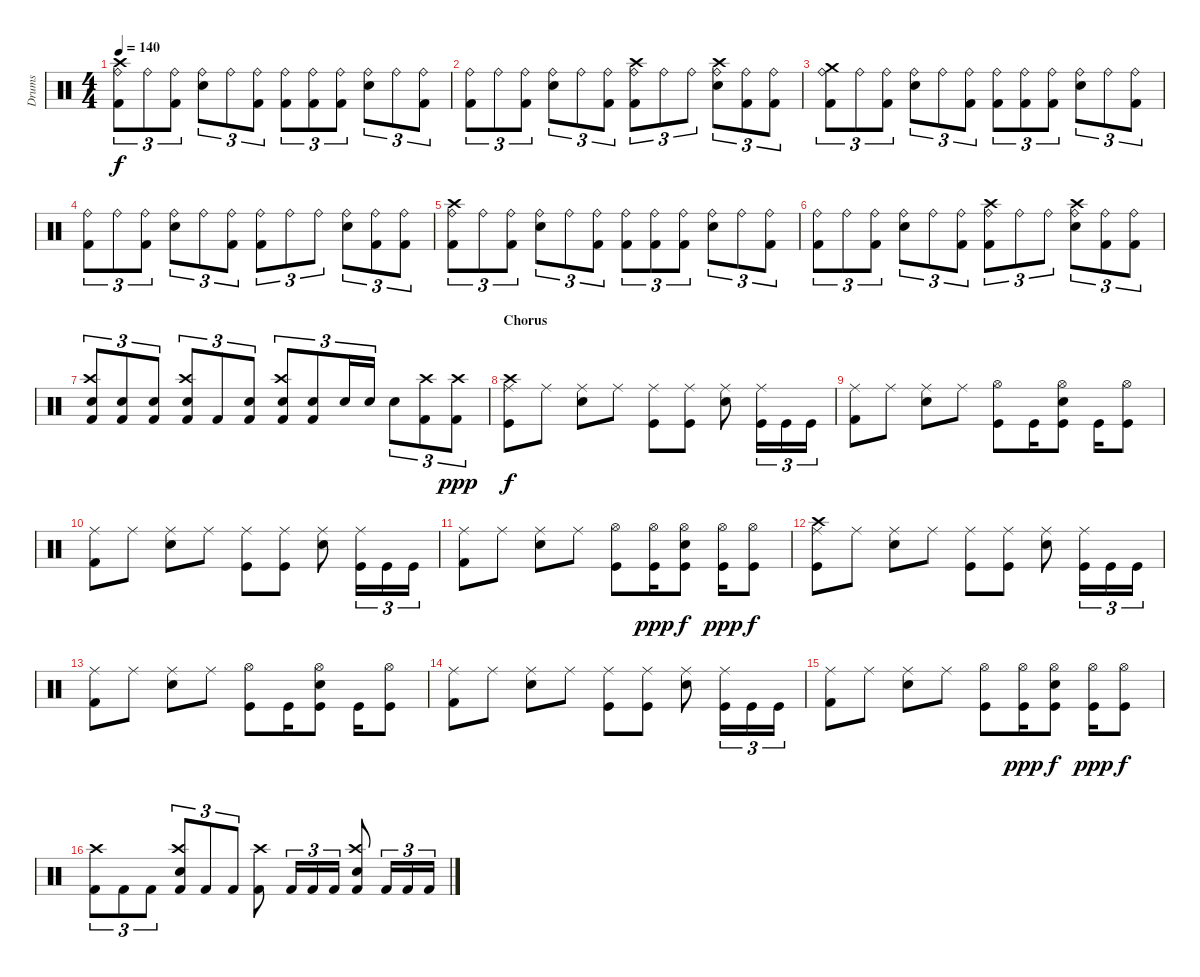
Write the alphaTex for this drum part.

\track ("Drums" "Drums") {instrument percussion}
\staff {score}
\articulation defaults
\ts (4 4)
\tempo 140
\clef neutral
\ks c
("Ride (bell)" "Kick (hit) 2" "Crash high (hit)").8{tu (3 2) dy f} "Ride (bell)".8{tu (3 2)} ("Ride (bell)" "Kick (hit) 2").8{tu (3 2)} ("Ride (bell)" "Electric Snare (hit)").8{tu (3 2)} "Ride (bell)".8{tu (3 2)} ("Ride (bell)" "Kick (hit) 2").8{tu (3 2)} ("Ride (bell)" "Kick (hit) 2").8{tu (3 2)} ("Ride (bell)" "Kick (hit) 2").8{tu (3 2)} ("Ride (bell)" "Kick (hit) 2").8{tu (3 2)} ("Ride (bell)" "Electric Snare (hit)").8{tu (3 2)} "Ride (bell)".8{tu (3 2)} ("Ride (bell)" "Kick (hit) 2").8{tu (3 2)} |
("Ride (bell)" "Kick (hit) 2").8{tu (3 2)} "Ride (bell)".8{tu (3 2)} ("Ride (bell)" "Kick (hit) 2").8{tu (3 2)} ("Ride (bell)" "Electric Snare (hit)").8{tu (3 2)} "Ride (bell)".8{tu (3 2)} ("Ride (bell)" "Kick (hit) 2").8{tu (3 2)} ("Ride (bell)" "Crash high (hit)" "Kick (hit) 2").8{tu (3 2)} "Ride (bell)".8{tu (3 2)} "Ride (bell)".8{tu (3 2)} ("Ride (bell)" "Crash high (hit)" "Electric Snare (hit)").8{tu (3 2)} ("Ride (bell)" "Kick (hit) 2").8{tu (3 2)} ("Ride (bell)" "Kick (hit) 2").8{tu (3 2)} |
("Ride (bell)" "Kick (hit) 2" "Crash medium (hit)").8{tu (3 2)} "Ride (bell)".8{tu (3 2)} ("Ride (bell)" "Kick (hit) 2").8{tu (3 2)} ("Ride (bell)" "Electric Snare (hit)").8{tu (3 2)} "Ride (bell)".8{tu (3 2)} ("Ride (bell)" "Kick (hit) 2").8{tu (3 2)} ("Ride (bell)" "Kick (hit) 2").8{tu (3 2)} ("Ride (bell)" "Kick (hit) 2").8{tu (3 2)} ("Ride (bell)" "Kick (hit) 2").8{tu (3 2)} ("Ride (bell)" "Electric Snare (hit)").8{tu (3 2)} "Ride (bell)".8{tu (3 2)} ("Ride (bell)" "Kick (hit) 2").8{tu (3 2)} |
("Ride (bell)" "Kick (hit) 2").8{tu (3 2)} "Ride (bell)".8{tu (3 2)} ("Ride (bell)" "Kick (hit) 2").8{tu (3 2)} ("Ride (bell)" "Electric Snare (hit)").8{tu (3 2)} "Ride (bell)".8{tu (3 2)} ("Ride (bell)" "Kick (hit) 2").8{tu (3 2)} ("Ride (bell)" "Kick (hit) 2").8{tu (3 2)} "Ride (bell)".8{tu (3 2)} "Ride (bell)".8{tu (3 2)} ("Ride (bell)" "Electric Snare (hit)").8{tu (3 2)} ("Ride (bell)" "Kick (hit) 2").8{tu (3 2)} ("Ride (bell)" "Kick (hit) 2").8{tu (3 2)} |
("Ride (bell)" "Kick (hit) 2" "Crash high (hit)").8{tu (3 2)} "Ride (bell)".8{tu (3 2)} ("Ride (bell)" "Kick (hit) 2").8{tu (3 2)} ("Ride (bell)" "Electric Snare (hit)").8{tu (3 2)} "Ride (bell)".8{tu (3 2)} ("Ride (bell)" "Kick (hit) 2").8{tu (3 2)} ("Ride (bell)" "Kick (hit) 2").8{tu (3 2)} ("Ride (bell)" "Kick (hit) 2").8{tu (3 2)} ("Ride (bell)" "Kick (hit) 2").8{tu (3 2)} ("Ride (bell)" "Electric Snare (hit)").8{tu (3 2)} "Ride (bell)".8{tu (3 2)} ("Ride (bell)" "Kick (hit) 2").8{tu (3 2)} |
("Ride (bell)" "Kick (hit) 2").8{tu (3 2)} "Ride (bell)".8{tu (3 2)} ("Ride (bell)" "Kick (hit) 2").8{tu (3 2)} ("Ride (bell)" "Electric Snare (hit)").8{tu (3 2)} "Ride (bell)".8{tu (3 2)} ("Ride (bell)" "Kick (hit) 2").8{tu (3 2)} ("Ride (bell)" "Crash high (hit)" "Kick (hit) 2").8{tu (3 2)} "Ride (bell)".8{tu (3 2)} "Ride (bell)".8{tu (3 2)} ("Ride (bell)" "Crash high (hit)" "Electric Snare (hit)").8{tu (3 2)} ("Ride (bell)" "Kick (hit) 2").8{tu (3 2)} ("Ride (bell)" "Kick (hit) 2").8{tu (3 2)} |
("Crash high (hit)" "Electric Snare (hit)" "Kick (hit) 2").8{tu (3 2)} ("Electric Snare (hit)" "Kick (hit) 2").8{tu (3 2)} ("Electric Snare (hit)" "Kick (hit) 2").8{tu (3 2)} ("Crash high (hit)" "Electric Snare (hit)" "Kick (hit) 2").8{tu (3 2)} "Kick (hit) 2".8{tu (3 2)} ("Electric Snare (hit)" "Kick (hit) 2").8{tu (3 2)} ("Crash high (hit)" "Electric Snare (hit)" "Kick (hit) 2").8{tu (3 2)} ("Electric Snare (hit)" "Kick (hit) 2").8{tu (3 2)} "Electric Snare (hit)".16{tu (3 2)} "Electric Snare (hit)".16{tu (3 2)} "Electric Snare (hit)".8{tu (3 2)} ("Kick (hit) 2" "Crash high (hit)").8{tu (3 2)} ("Kick (hit) 2" "Crash high (hit)").8{tu (3 2) dy ppp} |
\section ("" "Chorus")
("Ride (middle)" "Kick (hit)" "Crash high (hit)").8{dy f} "Ride (middle)".8 ("Ride (middle)" "Electric Snare (hit)").8 "Ride (middle)".8 ("Ride (middle)" "Kick (hit)").8 ("Ride (middle)" "Kick (hit)").8 ("Ride (middle)" "Electric Snare (hit)").8 ("Ride (middle)" "Kick (hit)").16{tu (3 2)} "Kick (hit)".16{tu (3 2)} "Kick (hit)".16{tu (3 2)} |
("Ride (middle)" "Kick (hit) 2").8 "Ride (middle)".8 ("Ride (middle)" "Electric Snare (hit)").8 "Ride (middle)".8 ("Kick (hit)" "Hi-Hat (open)").8 "Kick (hit)".16 ("Kick (hit)" "Hi-Hat (open)" "Electric Snare (hit)").8 "Kick (hit)".16 ("Kick (hit)" "Hi-Hat (open)").8 |
("Ride (middle)" "Kick (hit) 2").8 "Ride (middle)".8 ("Ride (middle)" "Electric Snare (hit)").8 "Ride (middle)".8 ("Ride (middle)" "Kick (hit)").8 ("Ride (middle)" "Kick (hit)").8 ("Ride (middle)" "Electric Snare (hit)").8 ("Ride (middle)" "Kick (hit)").16{tu (3 2)} "Kick (hit)".16{tu (3 2)} "Kick (hit)".16{tu (3 2)} |
("Ride (middle)" "Kick (hit) 2").8 "Ride (middle)".8 ("Ride (middle)" "Electric Snare (hit)").8 "Ride (middle)".8 ("Kick (hit)" "Hi-Hat (open)").8 ("Kick (hit)" "Hi-Hat (open)").16{dy ppp} ("Kick (hit)" "Hi-Hat (open)" "Electric Snare (hit)").8{dy f} ("Kick (hit)" "Hi-Hat (open)").16{dy ppp} ("Kick (hit)" "Hi-Hat (open)").8{dy f} |
("Ride (middle)" "Kick (hit)" "Crash high (hit)").8 "Ride (middle)".8 ("Ride (middle)" "Electric Snare (hit)").8 "Ride (middle)".8 ("Ride (middle)" "Kick (hit)").8 ("Ride (middle)" "Kick (hit)").8 ("Ride (middle)" "Electric Snare (hit)").8 ("Ride (middle)" "Kick (hit)").16{tu (3 2)} "Kick (hit)".16{tu (3 2)} "Kick (hit)".16{tu (3 2)} |
("Ride (middle)" "Kick (hit) 2").8 "Ride (middle)".8 ("Ride (middle)" "Electric Snare (hit)").8 "Ride (middle)".8 ("Kick (hit)" "Hi-Hat (open)").8 "Kick (hit)".16 ("Kick (hit)" "Hi-Hat (open)" "Electric Snare (hit)").8 "Kick (hit)".16 ("Kick (hit)" "Hi-Hat (open)").8 |
("Ride (middle)" "Kick (hit) 2").8 "Ride (middle)".8 ("Ride (middle)" "Electric Snare (hit)").8 "Ride (middle)".8 ("Ride (middle)" "Kick (hit)").8 ("Ride (middle)" "Kick (hit)").8 ("Ride (middle)" "Electric Snare (hit)").8 ("Ride (middle)" "Kick (hit)").16{tu (3 2)} "Kick (hit)".16{tu (3 2)} "Kick (hit)".16{tu (3 2)} |
("Ride (middle)" "Kick (hit) 2").8 "Ride (middle)".8 ("Ride (middle)" "Electric Snare (hit)").8 "Ride (middle)".8 ("Kick (hit)" "Hi-Hat (open)").8 ("Kick (hit)" "Hi-Hat (open)").16{dy ppp} ("Kick (hit)" "Hi-Hat (open)" "Electric Snare (hit)").8{dy f} ("Kick (hit)" "Hi-Hat (open)").16{dy ppp} ("Kick (hit)" "Hi-Hat (open)").8{dy f} |
("Crash high (hit)" "Kick (hit) 2").8{tu (3 2)} "Kick (hit) 2".8{tu (3 2)} "Kick (hit) 2".8{tu (3 2)} ("Crash high (hit)" "Electric Snare (hit)" "Kick (hit) 2").8{tu (3 2)} "Kick (hit) 2".8{tu (3 2)} "Kick (hit) 2".8{tu (3 2)} ("Crash high (hit)" "Kick (hit) 2").8 "Kick (hit) 2".16{tu (3 2)} "Kick (hit) 2".16{tu (3 2)} "Kick (hit) 2".16{tu (3 2)} ("Crash high (hit)" "Electric Snare (hit)" "Kick (hit) 2").8 "Kick (hit) 2".16{tu (3 2)} "Kick (hit) 2".16{tu (3 2)} "Kick (hit) 2".16{tu (3 2)}
